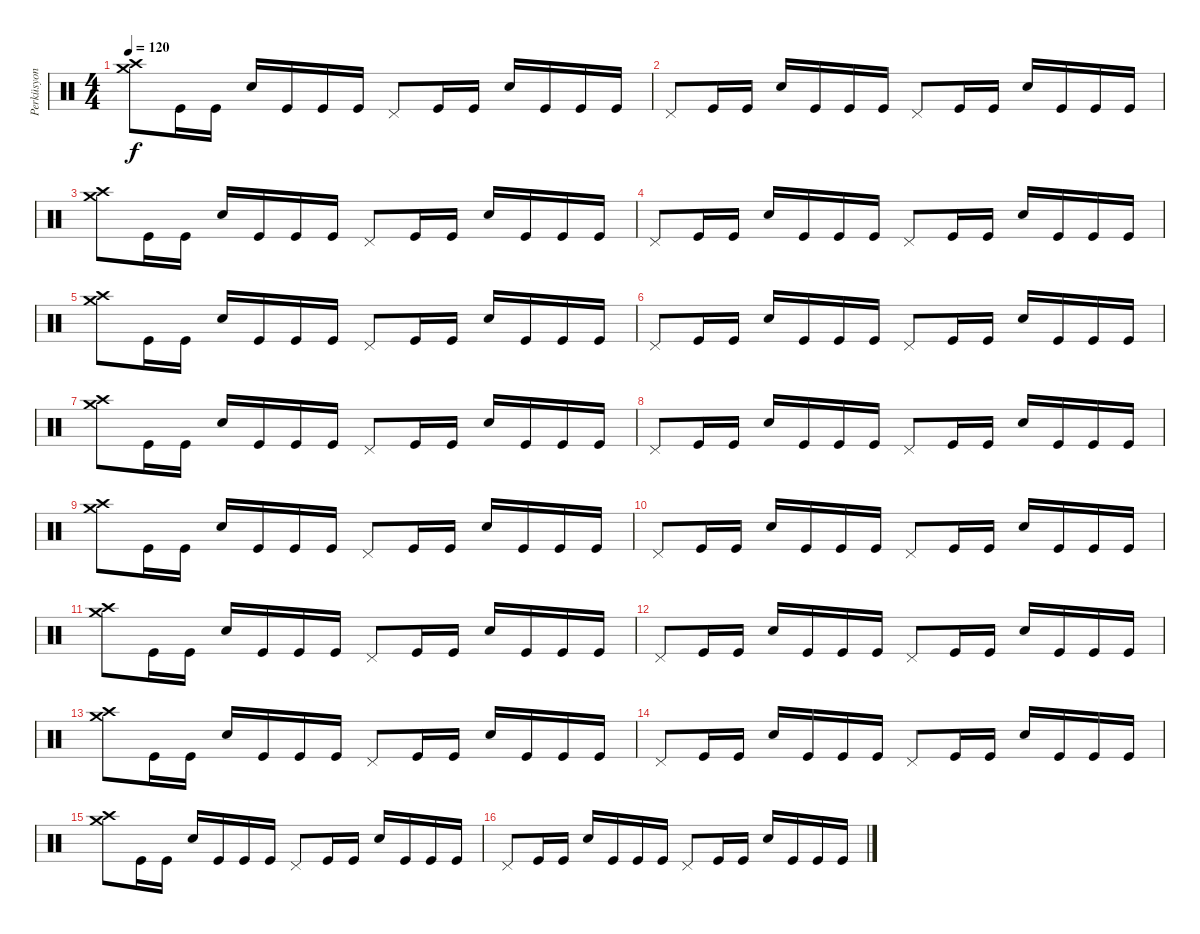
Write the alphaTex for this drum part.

\track ("Perküsyon" "Perküsyon") {instrument percussion}
\staff {score}
\articulation defaults
\ts (4 4)
\tempo 120
\clef neutral
\ks c
("Crash high (hit)" "Crash medium (hit)").8{dy f} "Kick (hit)".16 "Kick (hit)".16 "Snare (hit) 2".16 "Kick (hit)".16 "Kick (hit)".16 "Kick (hit)".16 "Pedal Hi-Hat (hit)".8 "Kick (hit)".16 "Kick (hit)".16 "Snare (hit) 2".16 "Kick (hit)".16 "Kick (hit)".16 "Kick (hit)".16 |
"Pedal Hi-Hat (hit)".8 "Kick (hit)".16 "Kick (hit)".16 "Snare (hit) 2".16 "Kick (hit)".16 "Kick (hit)".16 "Kick (hit)".16 "Pedal Hi-Hat (hit)".8 "Kick (hit)".16 "Kick (hit)".16 "Snare (hit) 2".16 "Kick (hit)".16 "Kick (hit)".16 "Kick (hit)".16 |
("Crash high (hit)" "Crash medium (hit)").8 "Kick (hit)".16 "Kick (hit)".16 "Snare (hit) 2".16 "Kick (hit)".16 "Kick (hit)".16 "Kick (hit)".16 "Pedal Hi-Hat (hit)".8 "Kick (hit)".16 "Kick (hit)".16 "Snare (hit) 2".16 "Kick (hit)".16 "Kick (hit)".16 "Kick (hit)".16 |
"Pedal Hi-Hat (hit)".8 "Kick (hit)".16 "Kick (hit)".16 "Snare (hit) 2".16 "Kick (hit)".16 "Kick (hit)".16 "Kick (hit)".16 "Pedal Hi-Hat (hit)".8 "Kick (hit)".16 "Kick (hit)".16 "Snare (hit) 2".16 "Kick (hit)".16 "Kick (hit)".16 "Kick (hit)".16 |
("Crash high (hit)" "Crash medium (hit)").8 "Kick (hit)".16 "Kick (hit)".16 "Snare (hit) 2".16 "Kick (hit)".16 "Kick (hit)".16 "Kick (hit)".16 "Pedal Hi-Hat (hit)".8 "Kick (hit)".16 "Kick (hit)".16 "Snare (hit) 2".16 "Kick (hit)".16 "Kick (hit)".16 "Kick (hit)".16 |
"Pedal Hi-Hat (hit)".8 "Kick (hit)".16 "Kick (hit)".16 "Snare (hit) 2".16 "Kick (hit)".16 "Kick (hit)".16 "Kick (hit)".16 "Pedal Hi-Hat (hit)".8 "Kick (hit)".16 "Kick (hit)".16 "Snare (hit) 2".16 "Kick (hit)".16 "Kick (hit)".16 "Kick (hit)".16 |
("Crash high (hit)" "Crash medium (hit)").8 "Kick (hit)".16 "Kick (hit)".16 "Snare (hit) 2".16 "Kick (hit)".16 "Kick (hit)".16 "Kick (hit)".16 "Pedal Hi-Hat (hit)".8 "Kick (hit)".16 "Kick (hit)".16 "Snare (hit) 2".16 "Kick (hit)".16 "Kick (hit)".16 "Kick (hit)".16 |
"Pedal Hi-Hat (hit)".8 "Kick (hit)".16 "Kick (hit)".16 "Snare (hit) 2".16 "Kick (hit)".16 "Kick (hit)".16 "Kick (hit)".16 "Pedal Hi-Hat (hit)".8 "Kick (hit)".16 "Kick (hit)".16 "Snare (hit) 2".16 "Kick (hit)".16 "Kick (hit)".16 "Kick (hit)".16 |
("Crash high (hit)" "Crash medium (hit)").8 "Kick (hit)".16 "Kick (hit)".16 "Snare (hit) 2".16 "Kick (hit)".16 "Kick (hit)".16 "Kick (hit)".16 "Pedal Hi-Hat (hit)".8 "Kick (hit)".16 "Kick (hit)".16 "Snare (hit) 2".16 "Kick (hit)".16 "Kick (hit)".16 "Kick (hit)".16 |
"Pedal Hi-Hat (hit)".8 "Kick (hit)".16 "Kick (hit)".16 "Snare (hit) 2".16 "Kick (hit)".16 "Kick (hit)".16 "Kick (hit)".16 "Pedal Hi-Hat (hit)".8 "Kick (hit)".16 "Kick (hit)".16 "Snare (hit) 2".16 "Kick (hit)".16 "Kick (hit)".16 "Kick (hit)".16 |
("Crash high (hit)" "Crash medium (hit)").8 "Kick (hit)".16 "Kick (hit)".16 "Snare (hit) 2".16 "Kick (hit)".16 "Kick (hit)".16 "Kick (hit)".16 "Pedal Hi-Hat (hit)".8 "Kick (hit)".16 "Kick (hit)".16 "Snare (hit) 2".16 "Kick (hit)".16 "Kick (hit)".16 "Kick (hit)".16 |
"Pedal Hi-Hat (hit)".8 "Kick (hit)".16 "Kick (hit)".16 "Snare (hit) 2".16 "Kick (hit)".16 "Kick (hit)".16 "Kick (hit)".16 "Pedal Hi-Hat (hit)".8 "Kick (hit)".16 "Kick (hit)".16 "Snare (hit) 2".16 "Kick (hit)".16 "Kick (hit)".16 "Kick (hit)".16 |
("Crash high (hit)" "Crash medium (hit)").8 "Kick (hit)".16 "Kick (hit)".16 "Snare (hit) 2".16 "Kick (hit)".16 "Kick (hit)".16 "Kick (hit)".16 "Pedal Hi-Hat (hit)".8 "Kick (hit)".16 "Kick (hit)".16 "Snare (hit) 2".16 "Kick (hit)".16 "Kick (hit)".16 "Kick (hit)".16 |
"Pedal Hi-Hat (hit)".8 "Kick (hit)".16 "Kick (hit)".16 "Snare (hit) 2".16 "Kick (hit)".16 "Kick (hit)".16 "Kick (hit)".16 "Pedal Hi-Hat (hit)".8 "Kick (hit)".16 "Kick (hit)".16 "Snare (hit) 2".16 "Kick (hit)".16 "Kick (hit)".16 "Kick (hit)".16 |
("Crash high (hit)" "Crash medium (hit)").8 "Kick (hit)".16 "Kick (hit)".16 "Snare (hit) 2".16 "Kick (hit)".16 "Kick (hit)".16 "Kick (hit)".16 "Pedal Hi-Hat (hit)".8 "Kick (hit)".16 "Kick (hit)".16 "Snare (hit) 2".16 "Kick (hit)".16 "Kick (hit)".16 "Kick (hit)".16 |
"Pedal Hi-Hat (hit)".8 "Kick (hit)".16 "Kick (hit)".16 "Snare (hit) 2".16 "Kick (hit)".16 "Kick (hit)".16 "Kick (hit)".16 "Pedal Hi-Hat (hit)".8 "Kick (hit)".16 "Kick (hit)".16 "Snare (hit) 2".16 "Kick (hit)".16 "Kick (hit)".16 "Kick (hit)".16
